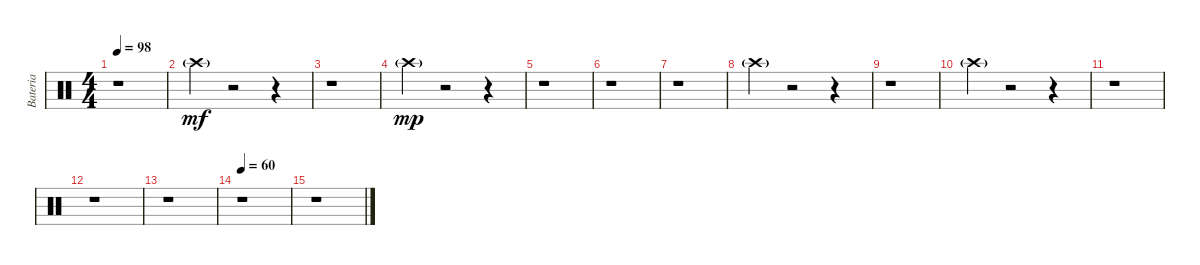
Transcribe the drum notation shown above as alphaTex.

\track ("Bateria" "Bateria") {instrument percussion}
\staff {score}
\articulation defaults
\ts (4 4)
\tempo 98
\clef neutral
\ks c
r.1{dy f} |
"Crash high (hit)"{g}.4{dy mf} r.2 r.4 |
r.1 |
"Crash high (hit)"{g}.4{dy mp} r.2 r.4 |
r.1 |
r.1 |
r.1 |
"Crash high (hit)"{g}.4 r.2 r.4 |
r.1 |
"Crash high (hit)"{g}.4 r.2 r.4 |
r.1 |
r.1 |
r.1 |
\tempo 60
r.1 |
r.1
